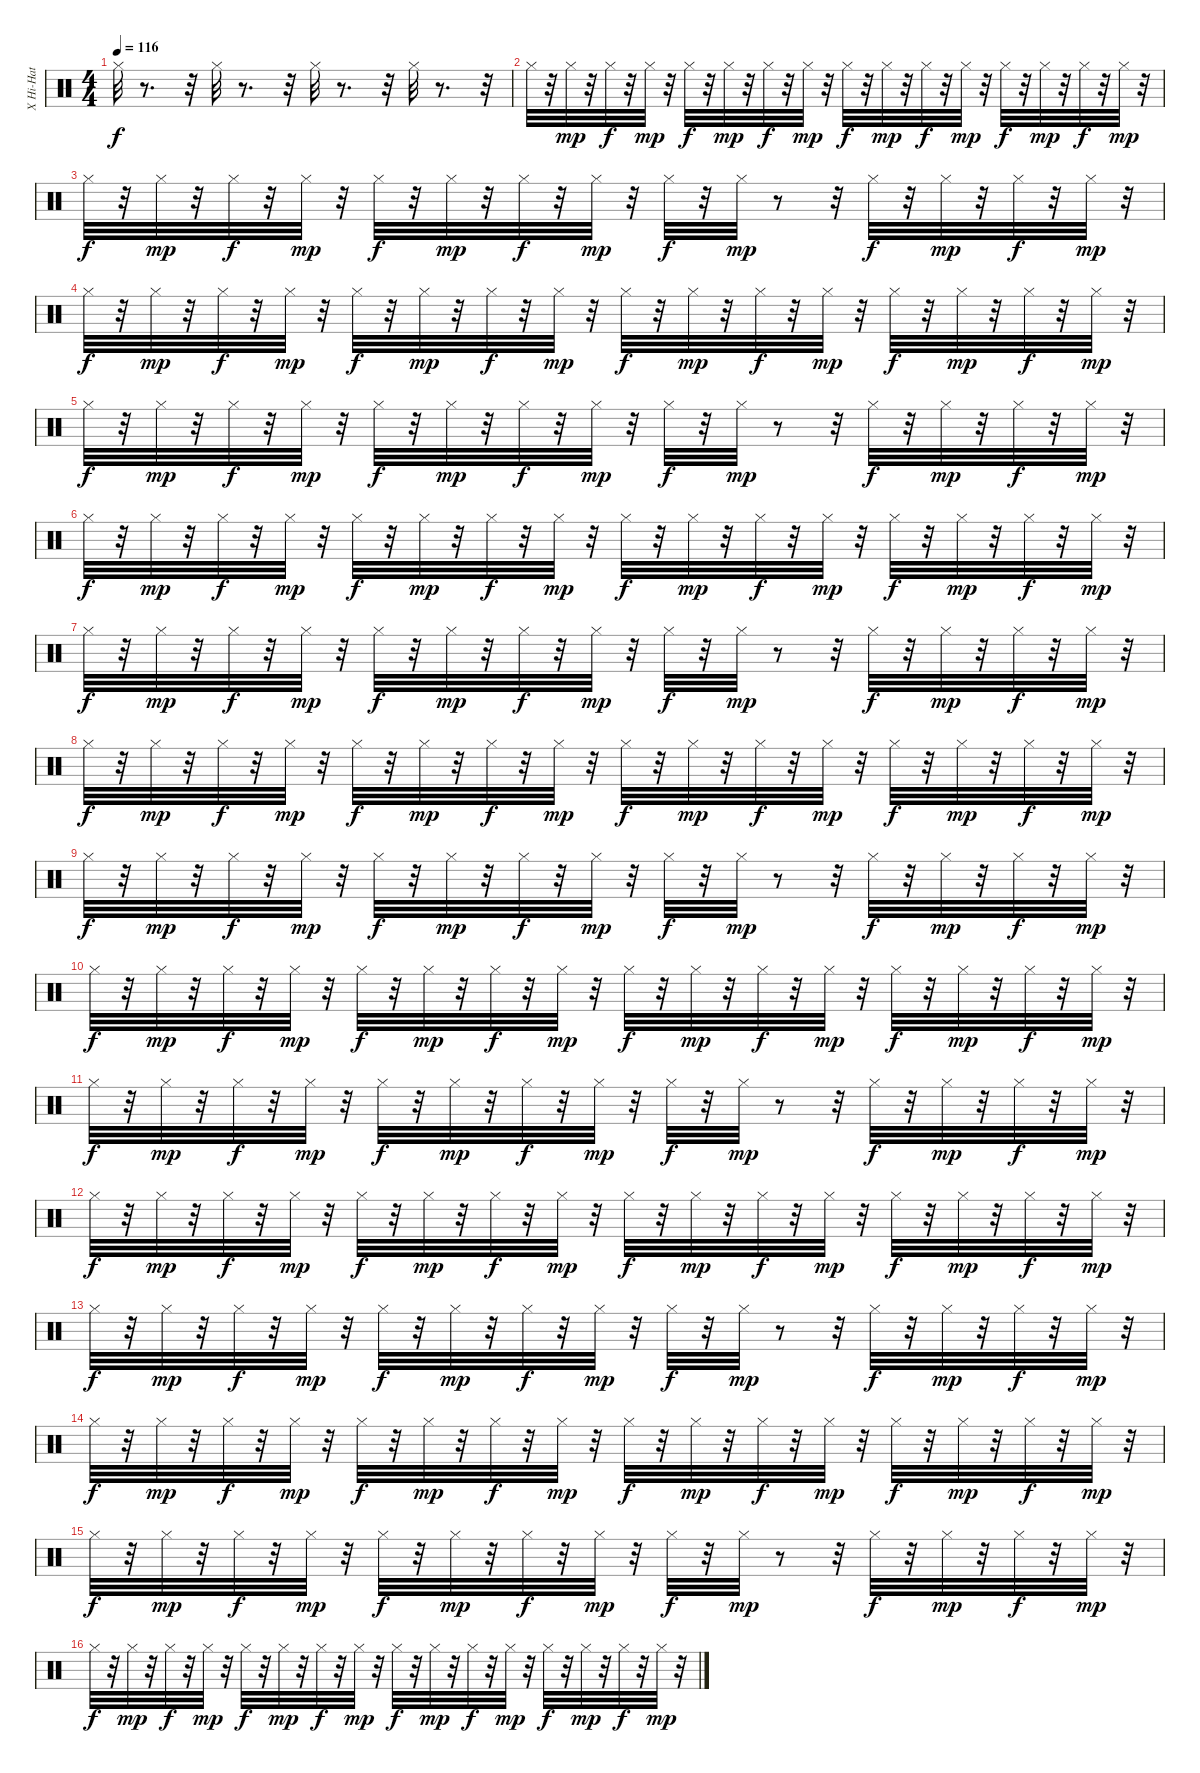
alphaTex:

\track ("X Hi-Hat            " "X Hi-Hat  ") {instrument percussion}
\staff {score}
\articulation defaults
\ts (4 4)
\tempo 116
\clef neutral
\ks c "Hi-Hat (closed)".32{dy f}
r.8{d} r.32 "Hi-Hat (closed)".32 r.8{d} r.32 "Hi-Hat (closed)".32 r.8{d} r.32 "Hi-Hat (closed)".32 r.8{d} r.32 |
"Hi-Hat (closed)".32 r.32 "Hi-Hat (closed)".32{dy mp} r.32 "Hi-Hat (closed)".32{dy f} r.32 "Hi-Hat (closed)".32{dy mp} r.32 "Hi-Hat (closed)".32{dy f} r.32 "Hi-Hat (closed)".32{dy mp} r.32 "Hi-Hat (closed)".32{dy f} r.32 "Hi-Hat (closed)".32{dy mp} r.32 "Hi-Hat (closed)".32{dy f} r.32 "Hi-Hat (closed)".32{dy mp} r.32 "Hi-Hat (closed)".32{dy f} r.32 "Hi-Hat (closed)".32{dy mp} r.32 "Hi-Hat (closed)".32{dy f} r.32 "Hi-Hat (closed)".32{dy mp} r.32 "Hi-Hat (closed)".32{dy f} r.32 "Hi-Hat (closed)".32{dy mp} r.32 |
"Hi-Hat (closed)".32{dy f} r.32 "Hi-Hat (closed)".32{dy mp} r.32 "Hi-Hat (closed)".32{dy f} r.32 "Hi-Hat (closed)".32{dy mp} r.32 "Hi-Hat (closed)".32{dy f} r.32 "Hi-Hat (closed)".32{dy mp} r.32 "Hi-Hat (closed)".32{dy f} r.32 "Hi-Hat (closed)".32{dy mp} r.32 "Hi-Hat (closed)".32{dy f} r.32 "Hi-Hat (closed)".32{dy mp} r.8 r.32 "Hi-Hat (closed)".32{dy f} r.32 "Hi-Hat (closed)".32{dy mp} r.32 "Hi-Hat (closed)".32{dy f} r.32 "Hi-Hat (closed)".32{dy mp} r.32 |
"Hi-Hat (closed)".32{dy f} r.32 "Hi-Hat (closed)".32{dy mp} r.32 "Hi-Hat (closed)".32{dy f} r.32 "Hi-Hat (closed)".32{dy mp} r.32 "Hi-Hat (closed)".32{dy f} r.32 "Hi-Hat (closed)".32{dy mp} r.32 "Hi-Hat (closed)".32{dy f} r.32 "Hi-Hat (closed)".32{dy mp} r.32 "Hi-Hat (closed)".32{dy f} r.32 "Hi-Hat (closed)".32{dy mp} r.32 "Hi-Hat (closed)".32{dy f} r.32 "Hi-Hat (closed)".32{dy mp} r.32 "Hi-Hat (closed)".32{dy f} r.32 "Hi-Hat (closed)".32{dy mp} r.32 "Hi-Hat (closed)".32{dy f} r.32 "Hi-Hat (closed)".32{dy mp} r.32 |
"Hi-Hat (closed)".32{dy f} r.32 "Hi-Hat (closed)".32{dy mp} r.32 "Hi-Hat (closed)".32{dy f} r.32 "Hi-Hat (closed)".32{dy mp} r.32 "Hi-Hat (closed)".32{dy f} r.32 "Hi-Hat (closed)".32{dy mp} r.32 "Hi-Hat (closed)".32{dy f} r.32 "Hi-Hat (closed)".32{dy mp} r.32 "Hi-Hat (closed)".32{dy f} r.32 "Hi-Hat (closed)".32{dy mp} r.8 r.32 "Hi-Hat (closed)".32{dy f} r.32 "Hi-Hat (closed)".32{dy mp} r.32 "Hi-Hat (closed)".32{dy f} r.32 "Hi-Hat (closed)".32{dy mp} r.32 |
"Hi-Hat (closed)".32{dy f} r.32 "Hi-Hat (closed)".32{dy mp} r.32 "Hi-Hat (closed)".32{dy f} r.32 "Hi-Hat (closed)".32{dy mp} r.32 "Hi-Hat (closed)".32{dy f} r.32 "Hi-Hat (closed)".32{dy mp} r.32 "Hi-Hat (closed)".32{dy f} r.32 "Hi-Hat (closed)".32{dy mp} r.32 "Hi-Hat (closed)".32{dy f} r.32 "Hi-Hat (closed)".32{dy mp} r.32 "Hi-Hat (closed)".32{dy f} r.32 "Hi-Hat (closed)".32{dy mp} r.32 "Hi-Hat (closed)".32{dy f} r.32 "Hi-Hat (closed)".32{dy mp} r.32 "Hi-Hat (closed)".32{dy f} r.32 "Hi-Hat (closed)".32{dy mp} r.32 |
"Hi-Hat (closed)".32{dy f} r.32 "Hi-Hat (closed)".32{dy mp} r.32 "Hi-Hat (closed)".32{dy f} r.32 "Hi-Hat (closed)".32{dy mp} r.32 "Hi-Hat (closed)".32{dy f} r.32 "Hi-Hat (closed)".32{dy mp} r.32 "Hi-Hat (closed)".32{dy f} r.32 "Hi-Hat (closed)".32{dy mp} r.32 "Hi-Hat (closed)".32{dy f} r.32 "Hi-Hat (closed)".32{dy mp} r.8 r.32 "Hi-Hat (closed)".32{dy f} r.32 "Hi-Hat (closed)".32{dy mp} r.32 "Hi-Hat (closed)".32{dy f} r.32 "Hi-Hat (closed)".32{dy mp} r.32 |
"Hi-Hat (closed)".32{dy f} r.32 "Hi-Hat (closed)".32{dy mp} r.32 "Hi-Hat (closed)".32{dy f} r.32 "Hi-Hat (closed)".32{dy mp} r.32 "Hi-Hat (closed)".32{dy f} r.32 "Hi-Hat (closed)".32{dy mp} r.32 "Hi-Hat (closed)".32{dy f} r.32 "Hi-Hat (closed)".32{dy mp} r.32 "Hi-Hat (closed)".32{dy f} r.32 "Hi-Hat (closed)".32{dy mp} r.32 "Hi-Hat (closed)".32{dy f} r.32 "Hi-Hat (closed)".32{dy mp} r.32 "Hi-Hat (closed)".32{dy f} r.32 "Hi-Hat (closed)".32{dy mp} r.32 "Hi-Hat (closed)".32{dy f} r.32 "Hi-Hat (closed)".32{dy mp} r.32 |
"Hi-Hat (closed)".32{dy f} r.32 "Hi-Hat (closed)".32{dy mp} r.32 "Hi-Hat (closed)".32{dy f} r.32 "Hi-Hat (closed)".32{dy mp} r.32 "Hi-Hat (closed)".32{dy f} r.32 "Hi-Hat (closed)".32{dy mp} r.32 "Hi-Hat (closed)".32{dy f} r.32 "Hi-Hat (closed)".32{dy mp} r.32 "Hi-Hat (closed)".32{dy f} r.32 "Hi-Hat (closed)".32{dy mp} r.8 r.32 "Hi-Hat (closed)".32{dy f} r.32 "Hi-Hat (closed)".32{dy mp} r.32 "Hi-Hat (closed)".32{dy f} r.32 "Hi-Hat (closed)".32{dy mp} r.32 |
"Hi-Hat (closed)".32{dy f} r.32 "Hi-Hat (closed)".32{dy mp} r.32 "Hi-Hat (closed)".32{dy f} r.32 "Hi-Hat (closed)".32{dy mp} r.32 "Hi-Hat (closed)".32{dy f} r.32 "Hi-Hat (closed)".32{dy mp} r.32 "Hi-Hat (closed)".32{dy f} r.32 "Hi-Hat (closed)".32{dy mp} r.32 "Hi-Hat (closed)".32{dy f} r.32 "Hi-Hat (closed)".32{dy mp} r.32 "Hi-Hat (closed)".32{dy f} r.32 "Hi-Hat (closed)".32{dy mp} r.32 "Hi-Hat (closed)".32{dy f} r.32 "Hi-Hat (closed)".32{dy mp} r.32 "Hi-Hat (closed)".32{dy f} r.32 "Hi-Hat (closed)".32{dy mp} r.32 |
"Hi-Hat (closed)".32{dy f} r.32 "Hi-Hat (closed)".32{dy mp} r.32 "Hi-Hat (closed)".32{dy f} r.32 "Hi-Hat (closed)".32{dy mp} r.32 "Hi-Hat (closed)".32{dy f} r.32 "Hi-Hat (closed)".32{dy mp} r.32 "Hi-Hat (closed)".32{dy f} r.32 "Hi-Hat (closed)".32{dy mp} r.32 "Hi-Hat (closed)".32{dy f} r.32 "Hi-Hat (closed)".32{dy mp} r.8 r.32 "Hi-Hat (closed)".32{dy f} r.32 "Hi-Hat (closed)".32{dy mp} r.32 "Hi-Hat (closed)".32{dy f} r.32 "Hi-Hat (closed)".32{dy mp} r.32 |
"Hi-Hat (closed)".32{dy f} r.32 "Hi-Hat (closed)".32{dy mp} r.32 "Hi-Hat (closed)".32{dy f} r.32 "Hi-Hat (closed)".32{dy mp} r.32 "Hi-Hat (closed)".32{dy f} r.32 "Hi-Hat (closed)".32{dy mp} r.32 "Hi-Hat (closed)".32{dy f} r.32 "Hi-Hat (closed)".32{dy mp} r.32 "Hi-Hat (closed)".32{dy f} r.32 "Hi-Hat (closed)".32{dy mp} r.32 "Hi-Hat (closed)".32{dy f} r.32 "Hi-Hat (closed)".32{dy mp} r.32 "Hi-Hat (closed)".32{dy f} r.32 "Hi-Hat (closed)".32{dy mp} r.32 "Hi-Hat (closed)".32{dy f} r.32 "Hi-Hat (closed)".32{dy mp} r.32 |
"Hi-Hat (closed)".32{dy f} r.32 "Hi-Hat (closed)".32{dy mp} r.32 "Hi-Hat (closed)".32{dy f} r.32 "Hi-Hat (closed)".32{dy mp} r.32 "Hi-Hat (closed)".32{dy f} r.32 "Hi-Hat (closed)".32{dy mp} r.32 "Hi-Hat (closed)".32{dy f} r.32 "Hi-Hat (closed)".32{dy mp} r.32 "Hi-Hat (closed)".32{dy f} r.32 "Hi-Hat (closed)".32{dy mp} r.8 r.32 "Hi-Hat (closed)".32{dy f} r.32 "Hi-Hat (closed)".32{dy mp} r.32 "Hi-Hat (closed)".32{dy f} r.32 "Hi-Hat (closed)".32{dy mp} r.32 |
"Hi-Hat (closed)".32{dy f} r.32 "Hi-Hat (closed)".32{dy mp} r.32 "Hi-Hat (closed)".32{dy f} r.32 "Hi-Hat (closed)".32{dy mp} r.32 "Hi-Hat (closed)".32{dy f} r.32 "Hi-Hat (closed)".32{dy mp} r.32 "Hi-Hat (closed)".32{dy f} r.32 "Hi-Hat (closed)".32{dy mp} r.32 "Hi-Hat (closed)".32{dy f} r.32 "Hi-Hat (closed)".32{dy mp} r.32 "Hi-Hat (closed)".32{dy f} r.32 "Hi-Hat (closed)".32{dy mp} r.32 "Hi-Hat (closed)".32{dy f} r.32 "Hi-Hat (closed)".32{dy mp} r.32 "Hi-Hat (closed)".32{dy f} r.32 "Hi-Hat (closed)".32{dy mp} r.32 |
"Hi-Hat (closed)".32{dy f} r.32 "Hi-Hat (closed)".32{dy mp} r.32 "Hi-Hat (closed)".32{dy f} r.32 "Hi-Hat (closed)".32{dy mp} r.32 "Hi-Hat (closed)".32{dy f} r.32 "Hi-Hat (closed)".32{dy mp} r.32 "Hi-Hat (closed)".32{dy f} r.32 "Hi-Hat (closed)".32{dy mp} r.32 "Hi-Hat (closed)".32{dy f} r.32 "Hi-Hat (closed)".32{dy mp} r.8 r.32 "Hi-Hat (closed)".32{dy f} r.32 "Hi-Hat (closed)".32{dy mp} r.32 "Hi-Hat (closed)".32{dy f} r.32 "Hi-Hat (closed)".32{dy mp} r.32 |
"Hi-Hat (closed)".32{dy f} r.32 "Hi-Hat (closed)".32{dy mp} r.32 "Hi-Hat (closed)".32{dy f} r.32 "Hi-Hat (closed)".32{dy mp} r.32 "Hi-Hat (closed)".32{dy f} r.32 "Hi-Hat (closed)".32{dy mp} r.32 "Hi-Hat (closed)".32{dy f} r.32 "Hi-Hat (closed)".32{dy mp} r.32 "Hi-Hat (closed)".32{dy f} r.32 "Hi-Hat (closed)".32{dy mp} r.32 "Hi-Hat (closed)".32{dy f} r.32 "Hi-Hat (closed)".32{dy mp} r.32 "Hi-Hat (closed)".32{dy f} r.32 "Hi-Hat (closed)".32{dy mp} r.32 "Hi-Hat (closed)".32{dy f} r.32 "Hi-Hat (closed)".32{dy mp} r.32
